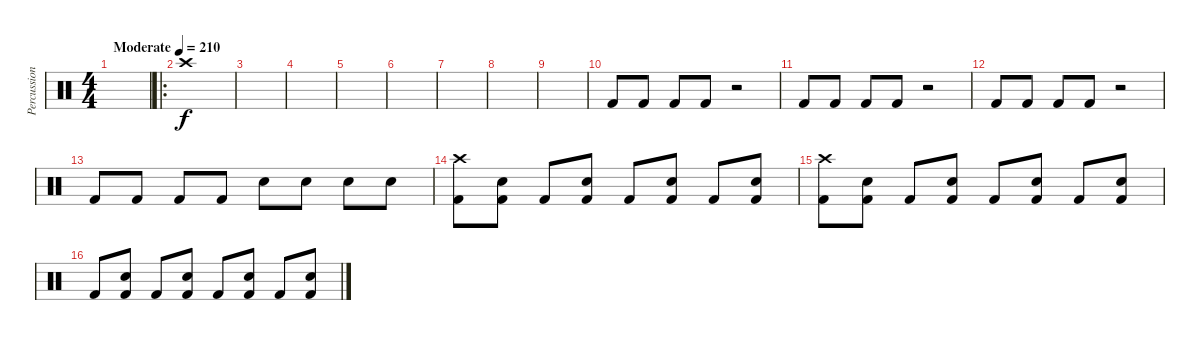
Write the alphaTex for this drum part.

\track ("Percussion" "Percussion") {instrument percussion}
\staff {score}
\articulation defaults
\ts (4 4)
\tempo (210 "Moderate")
\clef neutral
\ks c
|
\ro "Crash high (hit)".1
|
|
|
|
|
|
|
|
"Kick (hit) 2".8{volume 13} "Kick (hit) 2".8 "Kick (hit) 2".8 "Kick (hit) 2".8 r.2 |
"Kick (hit) 2".8 "Kick (hit) 2".8 "Kick (hit) 2".8 "Kick (hit) 2".8 r.2 |
"Kick (hit) 2".8 "Kick (hit) 2".8 "Kick (hit) 2".8 "Kick (hit) 2".8 r.2 |
"Kick (hit) 2".8 "Kick (hit) 2".8 "Kick (hit) 2".8 "Kick (hit) 2".8 "Snare (hit) 2".8 "Snare (hit) 2".8 "Snare (hit) 2".8 "Snare (hit) 2".8 |
("Kick (hit) 2" "Crash high (hit)").8 ("Kick (hit) 2" "Snare (hit) 2").8 "Kick (hit) 2".8 ("Kick (hit) 2" "Snare (hit) 2").8 "Kick (hit) 2".8 ("Kick (hit) 2" "Snare (hit) 2").8 "Kick (hit) 2".8 ("Kick (hit) 2" "Snare (hit) 2").8 |
("Kick (hit) 2" "Crash high (hit)").8 ("Kick (hit) 2" "Snare (hit) 2").8 "Kick (hit) 2".8 ("Kick (hit) 2" "Snare (hit) 2").8 "Kick (hit) 2".8 ("Kick (hit) 2" "Snare (hit) 2").8 "Kick (hit) 2".8 ("Kick (hit) 2" "Snare (hit) 2").8 |
"Kick (hit) 2".8 ("Kick (hit) 2" "Snare (hit) 2").8 "Kick (hit) 2".8 ("Kick (hit) 2" "Snare (hit) 2").8 "Kick (hit) 2".8 ("Kick (hit) 2" "Snare (hit) 2").8 "Kick (hit) 2".8 ("Kick (hit) 2" "Snare (hit) 2").8
